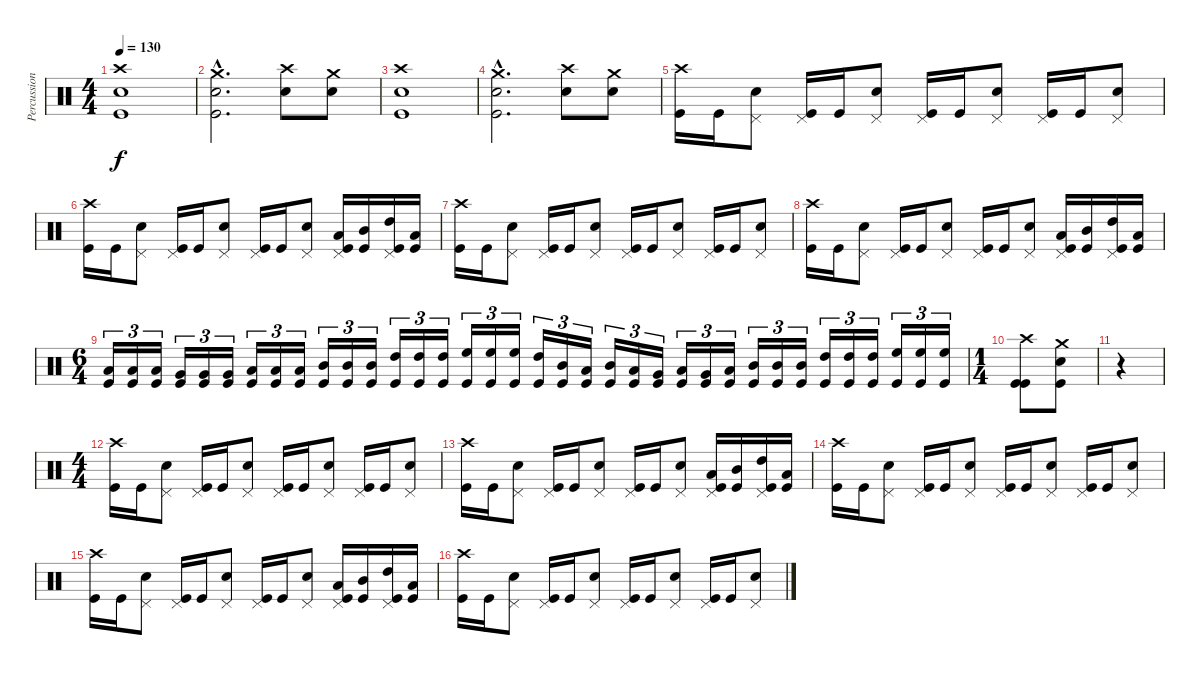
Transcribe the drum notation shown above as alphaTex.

\track ("Percussion" "Percussion") {instrument percussion}
\staff {score}
\articulation defaults
\ts (4 4)
\tempo 130
\clef neutral
\ks c
("Crash high (hit)" "Snare (hit) 2" "Kick (hit)").1{dy f} |
("Crash medium (hit)"{hac} "Snare (hit) 2"{hac} "Kick (hit)"{hac}).2{d} ("Crash high (hit)" "Snare (hit) 2").8 ("Crash medium (hit)" "Snare (hit) 2").8 |
("Crash high (hit)" "Snare (hit) 2" "Kick (hit)").1 |
("Crash medium (hit)"{hac} "Snare (hit) 2"{hac} "Kick (hit)"{hac}).2{d} ("Crash high (hit)" "Snare (hit) 2").8 ("Crash medium (hit)" "Snare (hit) 2").8 |
("Crash high (hit)" "Kick (hit)").16 "Kick (hit)".16 ("Pedal Hi-Hat (hit)" "Snare (hit) 2").8 ("Pedal Hi-Hat (hit)" "Kick (hit)").16 "Kick (hit)".16 ("Pedal Hi-Hat (hit)" "Snare (hit) 2").8 ("Pedal Hi-Hat (hit)" "Kick (hit)").16 "Kick (hit)".16 ("Pedal Hi-Hat (hit)" "Snare (hit) 2").8 ("Pedal Hi-Hat (hit)" "Kick (hit)").16 "Kick (hit)".16 ("Pedal Hi-Hat (hit)" "Snare (hit) 2").8 |
("Crash high (hit)" "Kick (hit)").16 "Kick (hit)".16 ("Pedal Hi-Hat (hit)" "Snare (hit) 2").8 ("Pedal Hi-Hat (hit)" "Kick (hit)").16 "Kick (hit)".16 ("Pedal Hi-Hat (hit)" "Snare (hit) 2").8 ("Pedal Hi-Hat (hit)" "Kick (hit)").16 "Kick (hit)".16 ("Pedal Hi-Hat (hit)" "Snare (hit) 2").8 ("Low Tom (hit)" "Pedal Hi-Hat (hit)" "Kick (hit)").16 ("Mid Tom (hit)" "Kick (hit)").16 ("High Tom (hit)" "Pedal Hi-Hat (hit)" "Kick (hit)").16 ("Low Tom (hit)" "Kick (hit)").16 |
("Crash high (hit)" "Kick (hit)").16 "Kick (hit)".16 ("Pedal Hi-Hat (hit)" "Snare (hit) 2").8 ("Pedal Hi-Hat (hit)" "Kick (hit)").16 "Kick (hit)".16 ("Pedal Hi-Hat (hit)" "Snare (hit) 2").8 ("Pedal Hi-Hat (hit)" "Kick (hit)").16 "Kick (hit)".16 ("Pedal Hi-Hat (hit)" "Snare (hit) 2").8 ("Pedal Hi-Hat (hit)" "Kick (hit)").16 "Kick (hit)".16 ("Pedal Hi-Hat (hit)" "Snare (hit) 2").8 |
("Crash high (hit)" "Kick (hit)").16 "Kick (hit)".16 ("Pedal Hi-Hat (hit)" "Snare (hit) 2").8 ("Pedal Hi-Hat (hit)" "Kick (hit)").16 "Kick (hit)".16 ("Pedal Hi-Hat (hit)" "Snare (hit) 2").8 ("Pedal Hi-Hat (hit)" "Kick (hit)").16 "Kick (hit)".16 ("Pedal Hi-Hat (hit)" "Snare (hit) 2").8 ("Low Tom (hit)" "Pedal Hi-Hat (hit)" "Kick (hit)").16 ("Mid Tom (hit)" "Kick (hit)").16 ("High Tom (hit)" "Pedal Hi-Hat (hit)" "Kick (hit)").16 ("Low Tom (hit)" "Kick (hit)").16 |
\ts (6 4)
("Low Floor Tom (hit)" "Kick (hit)").16{tu (3 2)} ("Low Floor Tom (hit)" "Kick (hit)").16{tu (3 2)} ("Low Floor Tom (hit)" "Kick (hit)").16{tu (3 2)} ("Very Low Tom (hit)" "Kick (hit)").16{tu (3 2)} ("Very Low Tom (hit)" "Kick (hit)").16{tu (3 2)} ("Very Low Tom (hit)" "Kick (hit)").16{tu (3 2)} ("Low Tom (hit)" "Kick (hit)").16{tu (3 2)} ("Low Tom (hit)" "Kick (hit)").16{tu (3 2)} ("Low Tom (hit)" "Kick (hit)").16{tu (3 2)} ("Mid Tom (hit)" "Kick (hit)").16{tu (3 2)} ("Mid Tom (hit)" "Kick (hit)").16{tu (3 2)} ("Mid Tom (hit)" "Kick (hit)").16{tu (3 2)} ("High Tom (hit)" "Kick (hit)").16{tu (3 2)} ("High Tom (hit)" "Kick (hit)").16{tu (3 2)} ("High Tom (hit)" "Kick (hit)").16{tu (3 2)} ("High Floor Tom (hit)" "Kick (hit)").16{tu (3 2)} ("High Floor Tom (hit)" "Kick (hit)").16{tu (3 2)} ("High Floor Tom (hit)" "Kick (hit)").16{tu (3 2)} ("High Tom (hit)" "Kick (hit)").16{tu (3 2)} ("Mid Tom (hit)" "Kick (hit)").16{tu (3 2)} ("Low Tom (hit)" "Kick (hit)").16{tu (3 2)} ("Mid Tom (hit)" "Kick (hit)").16{tu (3 2)} ("Low Tom (hit)" "Kick (hit)").16{tu (3 2)} ("Very Low Tom (hit)" "Kick (hit)").16{tu (3 2)} ("Low Floor Tom (hit)" "Kick (hit)").16{tu (3 2)} ("Very Low Tom (hit)" "Kick (hit)").16{tu (3 2)} ("Low Tom (hit)" "Kick (hit)").16{tu (3 2)} ("Mid Tom (hit)" "Kick (hit)").16{tu (3 2)} ("Mid Tom (hit)" "Kick (hit)").16{tu (3 2)} ("Mid Tom (hit)" "Kick (hit)").16{tu (3 2)} ("High Tom (hit)" "Kick (hit)").16{tu (3 2)} ("High Tom (hit)" "Kick (hit)").16{tu (3 2)} ("High Tom (hit)" "Kick (hit)").16{tu (3 2)} ("High Floor Tom (hit)" "Kick (hit)").16{tu (3 2)} ("High Floor Tom (hit)" "Kick (hit)").16{tu (3 2)} ("High Floor Tom (hit)" "Kick (hit)").16{tu (3 2)} |
\ts (1 4)
("Crash high (hit)" "Kick (hit)" "Kick (hit)").8 ("Crash medium (hit)" "Snare (hit) 2" "Kick (hit)").8 |
r.4 |
\ts (4 4)
("Crash high (hit)" "Kick (hit)").16 "Kick (hit)".16 ("Pedal Hi-Hat (hit)" "Snare (hit) 2").8 ("Pedal Hi-Hat (hit)" "Kick (hit)").16 "Kick (hit)".16 ("Pedal Hi-Hat (hit)" "Snare (hit) 2").8 ("Pedal Hi-Hat (hit)" "Kick (hit)").16 "Kick (hit)".16 ("Pedal Hi-Hat (hit)" "Snare (hit) 2").8 ("Pedal Hi-Hat (hit)" "Kick (hit)").16 "Kick (hit)".16 ("Pedal Hi-Hat (hit)" "Snare (hit) 2").8 |
("Crash high (hit)" "Kick (hit)").16 "Kick (hit)".16 ("Pedal Hi-Hat (hit)" "Snare (hit) 2").8 ("Pedal Hi-Hat (hit)" "Kick (hit)").16 "Kick (hit)".16 ("Pedal Hi-Hat (hit)" "Snare (hit) 2").8 ("Pedal Hi-Hat (hit)" "Kick (hit)").16 "Kick (hit)".16 ("Pedal Hi-Hat (hit)" "Snare (hit) 2").8 ("Low Tom (hit)" "Pedal Hi-Hat (hit)" "Kick (hit)").16 ("Mid Tom (hit)" "Kick (hit)").16 ("High Tom (hit)" "Pedal Hi-Hat (hit)" "Kick (hit)").16 ("Low Tom (hit)" "Kick (hit)").16 |
("Crash high (hit)" "Kick (hit)").16 "Kick (hit)".16 ("Pedal Hi-Hat (hit)" "Snare (hit) 2").8 ("Pedal Hi-Hat (hit)" "Kick (hit)").16 "Kick (hit)".16 ("Pedal Hi-Hat (hit)" "Snare (hit) 2").8 ("Pedal Hi-Hat (hit)" "Kick (hit)").16 "Kick (hit)".16 ("Pedal Hi-Hat (hit)" "Snare (hit) 2").8 ("Pedal Hi-Hat (hit)" "Kick (hit)").16 "Kick (hit)".16 ("Pedal Hi-Hat (hit)" "Snare (hit) 2").8 |
("Crash high (hit)" "Kick (hit)").16 "Kick (hit)".16 ("Pedal Hi-Hat (hit)" "Snare (hit) 2").8 ("Pedal Hi-Hat (hit)" "Kick (hit)").16 "Kick (hit)".16 ("Pedal Hi-Hat (hit)" "Snare (hit) 2").8 ("Pedal Hi-Hat (hit)" "Kick (hit)").16 "Kick (hit)".16 ("Pedal Hi-Hat (hit)" "Snare (hit) 2").8 ("Low Tom (hit)" "Pedal Hi-Hat (hit)" "Kick (hit)").16 ("Mid Tom (hit)" "Kick (hit)").16 ("High Tom (hit)" "Pedal Hi-Hat (hit)" "Kick (hit)").16 ("Low Tom (hit)" "Kick (hit)").16 |
("Crash high (hit)" "Kick (hit)").16 "Kick (hit)".16 ("Pedal Hi-Hat (hit)" "Snare (hit) 2").8 ("Pedal Hi-Hat (hit)" "Kick (hit)").16 "Kick (hit)".16 ("Pedal Hi-Hat (hit)" "Snare (hit) 2").8 ("Pedal Hi-Hat (hit)" "Kick (hit)").16 "Kick (hit)".16 ("Pedal Hi-Hat (hit)" "Snare (hit) 2").8 ("Pedal Hi-Hat (hit)" "Kick (hit)").16 "Kick (hit)".16 ("Pedal Hi-Hat (hit)" "Snare (hit) 2").8
